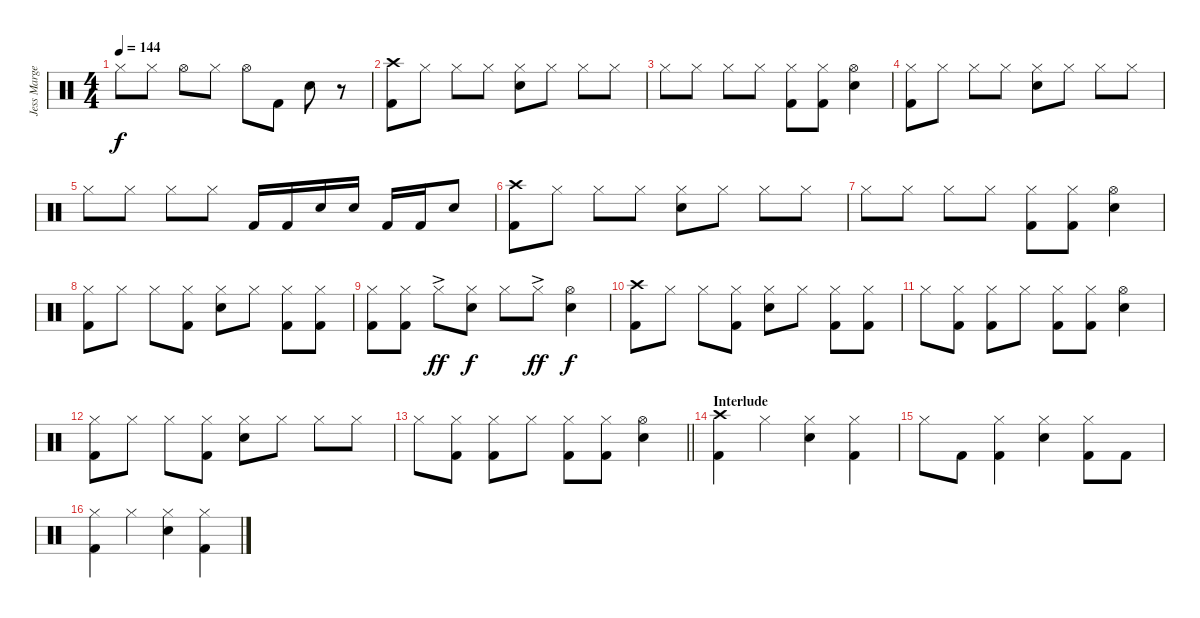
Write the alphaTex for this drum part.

\track ("Jess Margera" "Jess Marge") {instrument percussion}
\staff {score}
\articulation defaults
\ts (4 4)
\tempo 144
\clef neutral
\ks c "Hi-Hat (closed)".8{dy f} "Hi-Hat (closed)".8 "Hi-Hat (open)".8 "Hi-Hat (closed)".8 "Hi-Hat (open)".8 "Kick (hit) 2".8 "Electric Snare (hit)".8
r.8 |
("Crash high (hit)" "Kick (hit) 2").8 "Hi-Hat (closed)".8 "Hi-Hat (closed)".8 "Hi-Hat (closed)".8 ("Hi-Hat (closed)" "Electric Snare (hit)").8 "Hi-Hat (closed)".8 "Hi-Hat (closed)".8 "Hi-Hat (closed)".8 |
"Hi-Hat (closed)".8 "Hi-Hat (closed)".8 "Hi-Hat (closed)".8 "Hi-Hat (closed)".8 ("Hi-Hat (closed)" "Kick (hit) 2").8 ("Hi-Hat (closed)" "Kick (hit) 2").8 ("Hi-Hat (open)" "Electric Snare (hit)").4 |
("Hi-Hat (closed)" "Kick (hit) 2").8 "Hi-Hat (closed)".8 "Hi-Hat (closed)".8 "Hi-Hat (closed)".8 ("Hi-Hat (closed)" "Electric Snare (hit)").8 "Hi-Hat (closed)".8 "Hi-Hat (closed)".8 "Hi-Hat (closed)".8 |
"Hi-Hat (closed)".8 "Hi-Hat (closed)".8 "Hi-Hat (closed)".8 "Hi-Hat (closed)".8 "Kick (hit) 2".16 "Kick (hit) 2".16 "Electric Snare (hit)".16 "Electric Snare (hit)".16 "Kick (hit) 2".16 "Kick (hit) 2".16 "Electric Snare (hit)".8 |
("Crash high (hit)" "Kick (hit) 2").8 "Hi-Hat (closed)".8 "Hi-Hat (closed)".8 "Hi-Hat (closed)".8 ("Hi-Hat (closed)" "Electric Snare (hit)").8 "Hi-Hat (closed)".8 "Hi-Hat (closed)".8 "Hi-Hat (closed)".8 |
"Hi-Hat (closed)".8 "Hi-Hat (closed)".8 "Hi-Hat (closed)".8 "Hi-Hat (closed)".8 ("Hi-Hat (closed)" "Kick (hit) 2").8 ("Hi-Hat (closed)" "Kick (hit) 2").8 ("Hi-Hat (open)" "Electric Snare (hit)").4 |
("Hi-Hat (closed)" "Kick (hit) 2").8 "Hi-Hat (closed)".8 "Hi-Hat (closed)".8 ("Hi-Hat (closed)" "Kick (hit) 2").8 ("Hi-Hat (closed)" "Electric Snare (hit)").8 "Hi-Hat (closed)".8 ("Hi-Hat (closed)" "Kick (hit) 2").8 ("Hi-Hat (closed)" "Kick (hit) 2").8 |
("Hi-Hat (closed)" "Kick (hit) 2").8 ("Hi-Hat (closed)" "Kick (hit) 2").8 "Hi-Hat (closed)"{ac}.8{dy ff} ("Hi-Hat (closed)" "Electric Snare (hit)").8{dy f} "Hi-Hat (closed)".8 "Hi-Hat (closed)"{ac}.8{dy ff} ("Hi-Hat (open)" "Electric Snare (hit)").4{dy f} |
("Crash high (hit)" "Kick (hit) 2").8 "Hi-Hat (closed)".8 "Hi-Hat (closed)".8 ("Hi-Hat (closed)" "Kick (hit) 2").8 ("Hi-Hat (closed)" "Electric Snare (hit)").8 "Hi-Hat (closed)".8 ("Hi-Hat (closed)" "Kick (hit) 2").8 ("Hi-Hat (closed)" "Kick (hit) 2").8 |
"Hi-Hat (closed)".8 ("Hi-Hat (closed)" "Kick (hit) 2").8 ("Hi-Hat (closed)" "Kick (hit) 2").8 "Hi-Hat (closed)".8 ("Hi-Hat (closed)" "Kick (hit) 2").8 ("Hi-Hat (closed)" "Kick (hit) 2").8 ("Hi-Hat (open)" "Electric Snare (hit)").4 |
("Hi-Hat (closed)" "Kick (hit) 2").8 "Hi-Hat (closed)".8 "Hi-Hat (closed)".8 ("Hi-Hat (closed)" "Kick (hit) 2").8 ("Hi-Hat (closed)" "Electric Snare (hit)").8 "Hi-Hat (closed)".8 "Hi-Hat (closed)".8 "Hi-Hat (closed)".8 |
\barLineRight lightlight "Hi-Hat (closed)".8
("Hi-Hat (closed)" "Kick (hit) 2").8 ("Hi-Hat (closed)" "Kick (hit) 2").8 "Hi-Hat (closed)".8 ("Hi-Hat (closed)" "Kick (hit) 2").8 ("Hi-Hat (closed)" "Kick (hit) 2").8 ("Hi-Hat (open)" "Electric Snare (hit)").4 |
\section ("" "Interlude")
("Crash high (hit)" "Kick (hit) 2").4 "Hi-Hat (closed)".4 ("Hi-Hat (closed)" "Electric Snare (hit)").4 ("Hi-Hat (closed)" "Kick (hit) 2").4 |
"Hi-Hat (closed)".8 "Kick (hit) 2".8 ("Hi-Hat (closed)" "Kick (hit) 2").4 ("Hi-Hat (closed)" "Electric Snare (hit)").4 ("Hi-Hat (closed)" "Kick (hit) 2").8 "Kick (hit) 2".8 |
("Hi-Hat (closed)" "Kick (hit) 2").4 "Hi-Hat (closed)".4 ("Hi-Hat (closed)" "Electric Snare (hit)").4 ("Hi-Hat (closed)" "Kick (hit) 2").4
